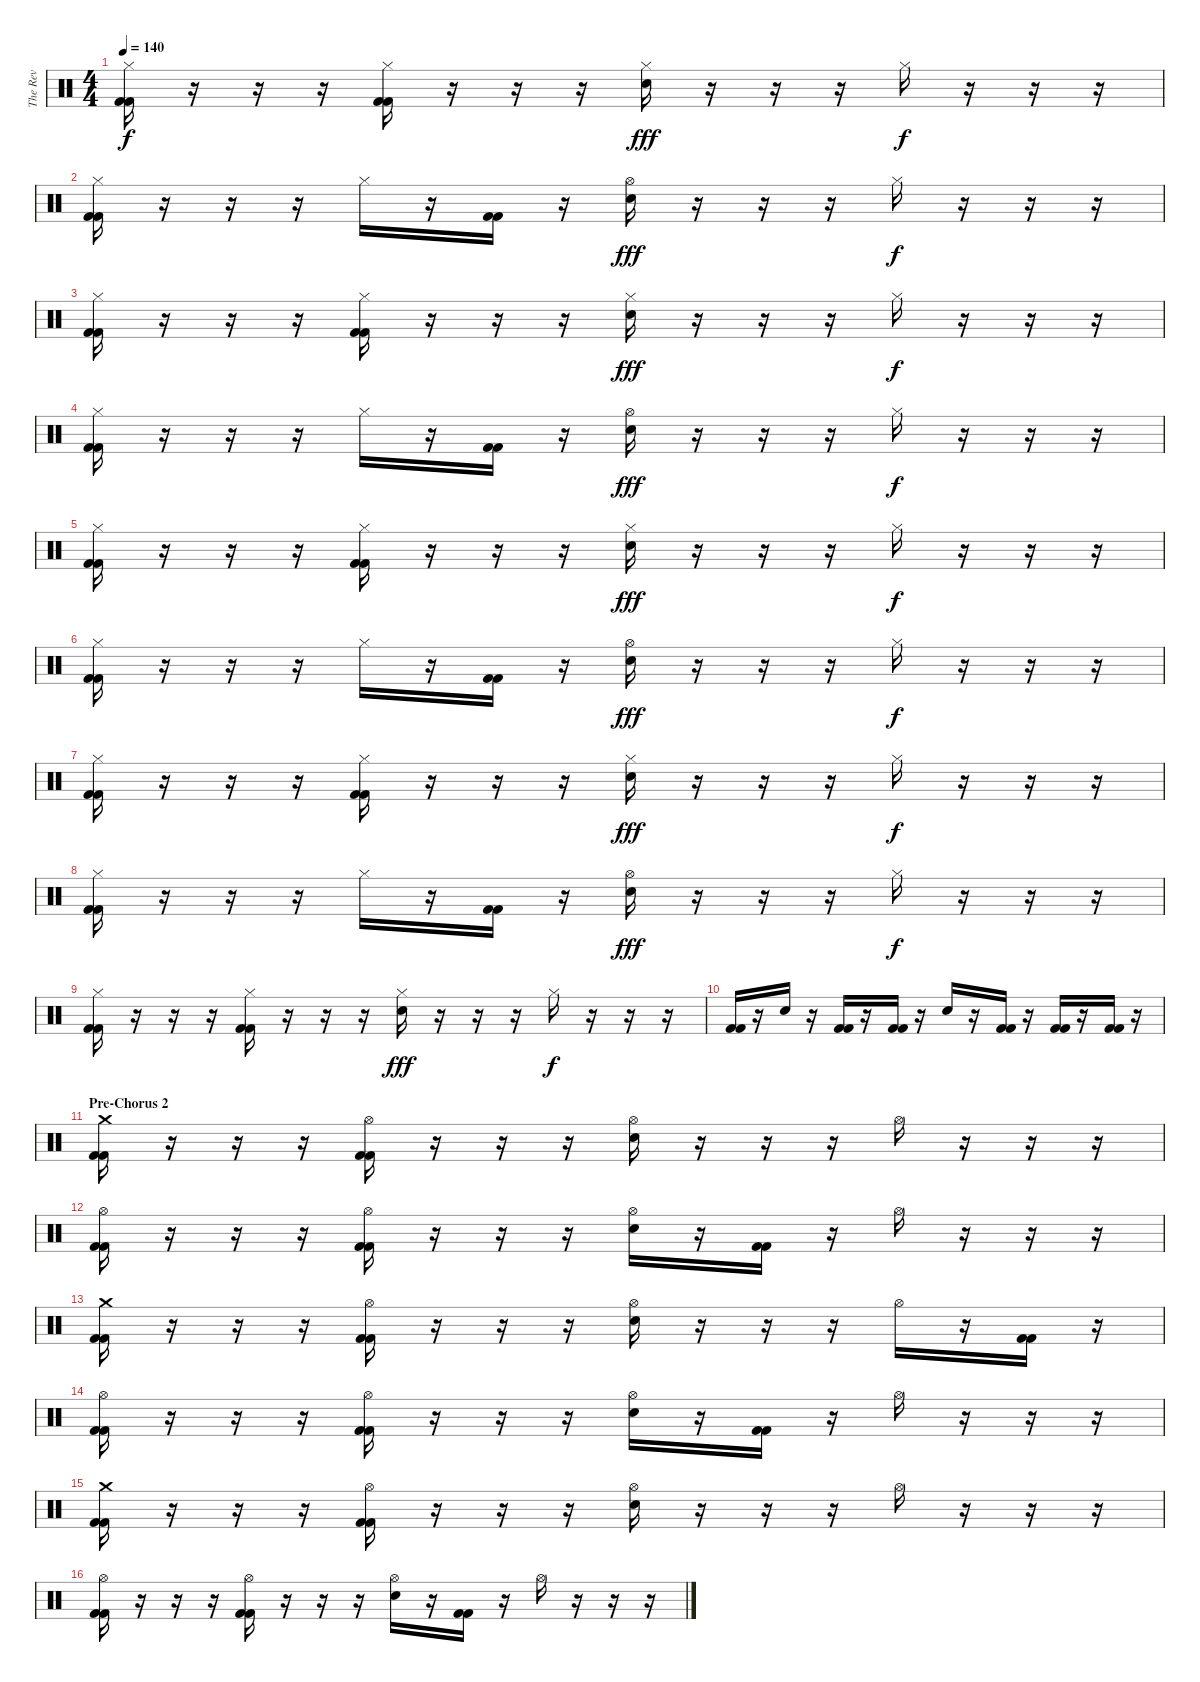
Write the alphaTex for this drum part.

\track ("The Rev" "The Rev") {instrument percussion}
\staff {score}
\articulation defaults
\ts (4 4)
\tempo 140
\clef neutral
\ks c
("Hi-Hat (closed)" "Kick (hit) 2" "Kick (hit) 2").16{dy f} r.16 r.16 r.16 ("Hi-Hat (closed)" "Kick (hit) 2" "Kick (hit) 2").16 r.16 r.16 r.16 ("Hi-Hat (closed)" "Electric Snare (hit)").16{dy fff} r.16 r.16 r.16 "Hi-Hat (closed)".16{dy f} r.16 r.16 r.16 |
("Hi-Hat (closed)" "Kick (hit) 2" "Kick (hit) 2").16 r.16 r.16 r.16 "Hi-Hat (closed)".16 r.16 ("Kick (hit) 2" "Kick (hit) 2").16 r.16 ("Hi-Hat (open)" "Electric Snare (hit)").16{dy fff} r.16 r.16 r.16 "Hi-Hat (closed)".16{dy f} r.16 r.16 r.16 |
("Hi-Hat (closed)" "Kick (hit) 2" "Kick (hit) 2").16 r.16 r.16 r.16 ("Hi-Hat (closed)" "Kick (hit) 2" "Kick (hit) 2").16 r.16 r.16 r.16 ("Hi-Hat (closed)" "Electric Snare (hit)").16{dy fff} r.16 r.16 r.16 "Hi-Hat (closed)".16{dy f} r.16 r.16 r.16 |
("Hi-Hat (closed)" "Kick (hit) 2" "Kick (hit) 2").16 r.16 r.16 r.16 "Hi-Hat (closed)".16 r.16 ("Kick (hit) 2" "Kick (hit) 2").16 r.16 ("Hi-Hat (open)" "Electric Snare (hit)").16{dy fff} r.16 r.16 r.16 "Hi-Hat (closed)".16{dy f} r.16 r.16 r.16 |
("Hi-Hat (closed)" "Kick (hit) 2" "Kick (hit) 2").16 r.16 r.16 r.16 ("Hi-Hat (closed)" "Kick (hit) 2" "Kick (hit) 2").16 r.16 r.16 r.16 ("Hi-Hat (closed)" "Electric Snare (hit)").16{dy fff} r.16 r.16 r.16 "Hi-Hat (closed)".16{dy f} r.16 r.16 r.16 |
("Hi-Hat (closed)" "Kick (hit) 2" "Kick (hit) 2").16 r.16 r.16 r.16 "Hi-Hat (closed)".16 r.16 ("Kick (hit) 2" "Kick (hit) 2").16 r.16 ("Hi-Hat (open)" "Electric Snare (hit)").16{dy fff} r.16 r.16 r.16 "Hi-Hat (closed)".16{dy f} r.16 r.16 r.16 |
("Hi-Hat (closed)" "Kick (hit) 2" "Kick (hit) 2").16 r.16 r.16 r.16 ("Hi-Hat (closed)" "Kick (hit) 2" "Kick (hit) 2").16 r.16 r.16 r.16 ("Hi-Hat (closed)" "Electric Snare (hit)").16{dy fff} r.16 r.16 r.16 "Hi-Hat (closed)".16{dy f} r.16 r.16 r.16 |
("Hi-Hat (closed)" "Kick (hit) 2" "Kick (hit) 2").16 r.16 r.16 r.16 "Hi-Hat (closed)".16 r.16 ("Kick (hit) 2" "Kick (hit) 2").16 r.16 ("Hi-Hat (open)" "Electric Snare (hit)").16{dy fff} r.16 r.16 r.16 "Hi-Hat (closed)".16{dy f} r.16 r.16 r.16 |
("Hi-Hat (closed)" "Kick (hit) 2" "Kick (hit) 2").16 r.16 r.16 r.16 ("Hi-Hat (closed)" "Kick (hit) 2" "Kick (hit) 2").16 r.16 r.16 r.16 ("Hi-Hat (closed)" "Electric Snare (hit)").16{dy fff} r.16 r.16 r.16 "Hi-Hat (closed)".16{dy f} r.16 r.16 r.16 |
("Kick (hit) 2" "Kick (hit) 2").16 r.16 "Electric Snare (hit)".16 r.16 ("Kick (hit) 2" "Kick (hit) 2").16 r.16 ("Kick (hit) 2" "Kick (hit) 2").16 r.16 "Electric Snare (hit)".16 r.16 ("Kick (hit) 2" "Kick (hit) 2").16 r.16 ("Kick (hit) 2" "Kick (hit) 2").16 r.16 ("Kick (hit) 2" "Kick (hit) 2").16 r.16 |
\section ("" "Pre-Chorus 2")
("Crash medium (hit)" "Kick (hit) 2" "Kick (hit) 2").16 r.16 r.16 r.16 ("Hi-Hat (open)" "Kick (hit) 2" "Kick (hit) 2").16 r.16 r.16 r.16 ("Hi-Hat (open)" "Electric Snare (hit)").16 r.16 r.16 r.16 "Hi-Hat (open)".16 r.16 r.16 r.16 |
("Hi-Hat (open)" "Kick (hit) 2" "Kick (hit) 2").16 r.16 r.16 r.16 ("Hi-Hat (open)" "Kick (hit) 2" "Kick (hit) 2").16 r.16 r.16 r.16 ("Hi-Hat (open)" "Electric Snare (hit)").16 r.16 ("Kick (hit) 2" "Kick (hit) 2").16 r.16 "Hi-Hat (open)".16 r.16 r.16 r.16 |
("Crash medium (hit)" "Kick (hit) 2" "Kick (hit) 2").16 r.16 r.16 r.16 ("Hi-Hat (open)" "Kick (hit) 2" "Kick (hit) 2").16 r.16 r.16 r.16 ("Hi-Hat (open)" "Electric Snare (hit)").16 r.16 r.16 r.16 "Hi-Hat (open)".16 r.16 ("Kick (hit) 2" "Kick (hit) 2").16 r.16 |
("Hi-Hat (open)" "Kick (hit) 2" "Kick (hit) 2").16 r.16 r.16 r.16 ("Hi-Hat (open)" "Kick (hit) 2" "Kick (hit) 2").16 r.16 r.16 r.16 ("Hi-Hat (open)" "Electric Snare (hit)").16 r.16 ("Kick (hit) 2" "Kick (hit) 2").16 r.16 "Hi-Hat (open)".16 r.16 r.16 r.16 |
("Crash medium (hit)" "Kick (hit) 2" "Kick (hit) 2").16 r.16 r.16 r.16 ("Hi-Hat (open)" "Kick (hit) 2" "Kick (hit) 2").16 r.16 r.16 r.16 ("Hi-Hat (open)" "Electric Snare (hit)").16 r.16 r.16 r.16 "Hi-Hat (open)".16 r.16 r.16 r.16 |
("Hi-Hat (open)" "Kick (hit) 2" "Kick (hit) 2").16 r.16 r.16 r.16 ("Hi-Hat (open)" "Kick (hit) 2" "Kick (hit) 2").16 r.16 r.16 r.16 ("Hi-Hat (open)" "Electric Snare (hit)").16 r.16 ("Kick (hit) 2" "Kick (hit) 2").16 r.16 "Hi-Hat (open)".16 r.16 r.16 r.16
